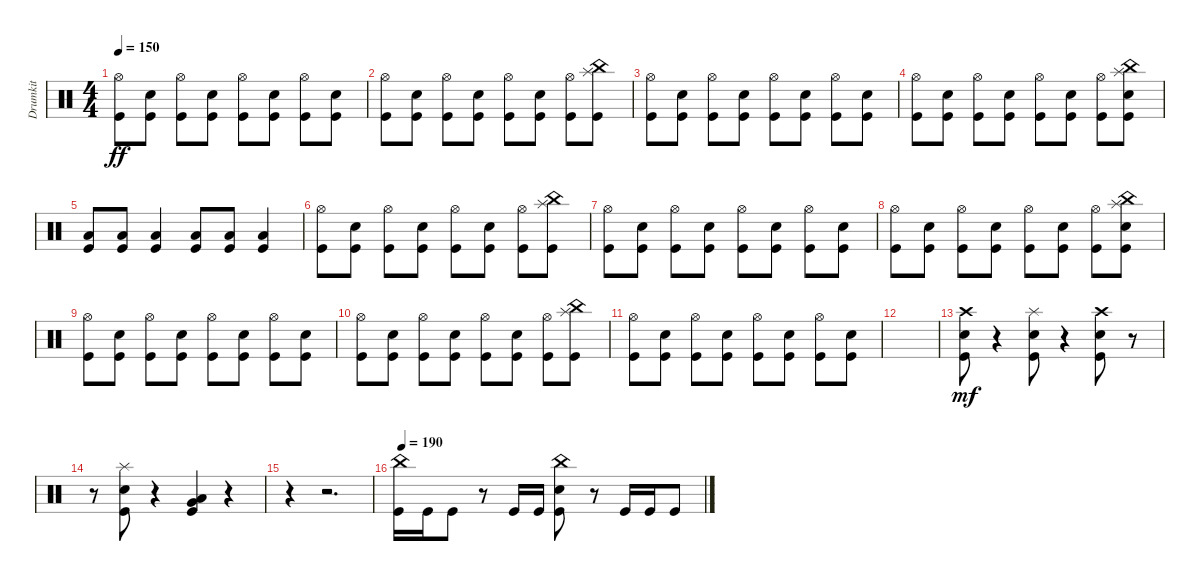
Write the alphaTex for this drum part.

\track ("Drumkit" "Drumkit") {instrument percussion}
\staff {score}
\articulation defaults
\ts (4 4)
\tempo 150
\clef neutral
\ks c
("Hi-Hat (open)" "Kick (hit)").8{dy ff} ("Snare (hit) 2" "Kick (hit)").8 ("Hi-Hat (open)" "Kick (hit)").8 ("Snare (hit) 2" "Kick (hit)").8 ("Hi-Hat (open)" "Kick (hit)").8 ("Snare (hit) 2" "Kick (hit)").8 ("Hi-Hat (open)" "Kick (hit)").8 ("Snare (hit) 2" "Kick (hit)").8 |
("Hi-Hat (open)" "Kick (hit)").8 ("Snare (hit) 2" "Kick (hit)").8 ("Hi-Hat (open)" "Kick (hit)").8 ("Snare (hit) 2" "Kick (hit)").8 ("Hi-Hat (open)" "Kick (hit)").8 ("Snare (hit) 2" "Kick (hit)").8 ("Hi-Hat (open)" "Kick (hit)").8 ("Kick (hit)" "China (hit)" "Splash (hit)").8 |
("Hi-Hat (open)" "Kick (hit)").8 ("Snare (hit) 2" "Kick (hit)").8 ("Hi-Hat (open)" "Kick (hit)").8 ("Snare (hit) 2" "Kick (hit)").8 ("Hi-Hat (open)" "Kick (hit)").8 ("Snare (hit) 2" "Kick (hit)").8 ("Hi-Hat (open)" "Kick (hit)").8 ("Snare (hit) 2" "Kick (hit)").8 |
("Hi-Hat (open)" "Kick (hit)").8 ("Snare (hit) 2" "Kick (hit)").8 ("Hi-Hat (open)" "Kick (hit)").8 ("Snare (hit) 2" "Kick (hit)").8 ("Hi-Hat (open)" "Kick (hit)").8 ("Snare (hit) 2" "Kick (hit)").8 ("Hi-Hat (open)" "Kick (hit)").8 ("Snare (hit) 2" "Kick (hit)" "China (hit)" "Splash (hit)").8 |
("Low Floor Tom (hit)" "Kick (hit)").8 ("Low Floor Tom (hit)" "Kick (hit)").8 ("Kick (hit)" "Low Floor Tom (hit)").4 ("Low Floor Tom (hit)" "Kick (hit)").8 ("Kick (hit)" "Low Floor Tom (hit)").8 ("Low Floor Tom (hit)" "Kick (hit)").4 |
("Hi-Hat (open)" "Kick (hit)").8 ("Snare (hit) 2" "Kick (hit)").8 ("Hi-Hat (open)" "Kick (hit)").8 ("Snare (hit) 2" "Kick (hit)").8 ("Hi-Hat (open)" "Kick (hit)").8 ("Snare (hit) 2" "Kick (hit)").8 ("Hi-Hat (open)" "Kick (hit)").8 ("Kick (hit)" "China (hit)" "Splash (hit)").8 |
("Hi-Hat (open)" "Kick (hit)").8 ("Snare (hit) 2" "Kick (hit)").8 ("Hi-Hat (open)" "Kick (hit)").8 ("Snare (hit) 2" "Kick (hit)").8 ("Hi-Hat (open)" "Kick (hit)").8 ("Snare (hit) 2" "Kick (hit)").8 ("Hi-Hat (open)" "Kick (hit)").8 ("Snare (hit) 2" "Kick (hit)").8 |
("Hi-Hat (open)" "Kick (hit)").8 ("Snare (hit) 2" "Kick (hit)").8 ("Hi-Hat (open)" "Kick (hit)").8 ("Snare (hit) 2" "Kick (hit)").8 ("Hi-Hat (open)" "Kick (hit)").8 ("Snare (hit) 2" "Kick (hit)").8 ("Hi-Hat (open)" "Kick (hit)").8 ("Snare (hit) 2" "Kick (hit)" "China (hit)" "Splash (hit)").8 |
("Hi-Hat (open)" "Kick (hit)").8 ("Snare (hit) 2" "Kick (hit)").8 ("Hi-Hat (open)" "Kick (hit)").8 ("Snare (hit) 2" "Kick (hit)").8 ("Hi-Hat (open)" "Kick (hit)").8 ("Snare (hit) 2" "Kick (hit)").8 ("Hi-Hat (open)" "Kick (hit)").8 ("Snare (hit) 2" "Kick (hit)").8 |
("Hi-Hat (open)" "Kick (hit)").8 ("Snare (hit) 2" "Kick (hit)").8 ("Hi-Hat (open)" "Kick (hit)").8 ("Snare (hit) 2" "Kick (hit)").8 ("Hi-Hat (open)" "Kick (hit)").8 ("Snare (hit) 2" "Kick (hit)").8 ("Hi-Hat (open)" "Kick (hit)").8 ("Kick (hit)" "China (hit)" "Splash (hit)").8 |
("Hi-Hat (open)" "Kick (hit)").8 ("Snare (hit) 2" "Kick (hit)").8 ("Hi-Hat (open)" "Kick (hit)").8 ("Snare (hit) 2" "Kick (hit)").8 ("Hi-Hat (open)" "Kick (hit)").8 ("Snare (hit) 2" "Kick (hit)").8 ("Hi-Hat (open)" "Kick (hit)").8 ("Snare (hit) 2" "Kick (hit)").8 |
|
("Crash high (hit)" "Kick (hit)" "Snare (hit) 2").8{dy mf} r.4 ("Splash (hit)" "Kick (hit)" "Snare (hit) 2").8 r.4 ("Crash high (hit)" "Snare (hit) 2" "Kick (hit)").8 r.8 |
r.8 ("Splash (hit)" "Kick (hit)" "Snare (hit) 2").8 r.4 ("Very Low Tom (hit)" "Low Tom (hit)" "Kick (hit)").4 r.4 |
r.4 r.2{d} |
\tempo 190
("Kick (hit)" "China (hit)").16 "Kick (hit)".16 "Kick (hit)".8 r.8 "Kick (hit)".16 "Kick (hit)".16 ("Kick (hit)" "China (hit)" "Snare (hit) 2").8 r.8 "Kick (hit)".16 "Kick (hit)".16 "Kick (hit)".8
